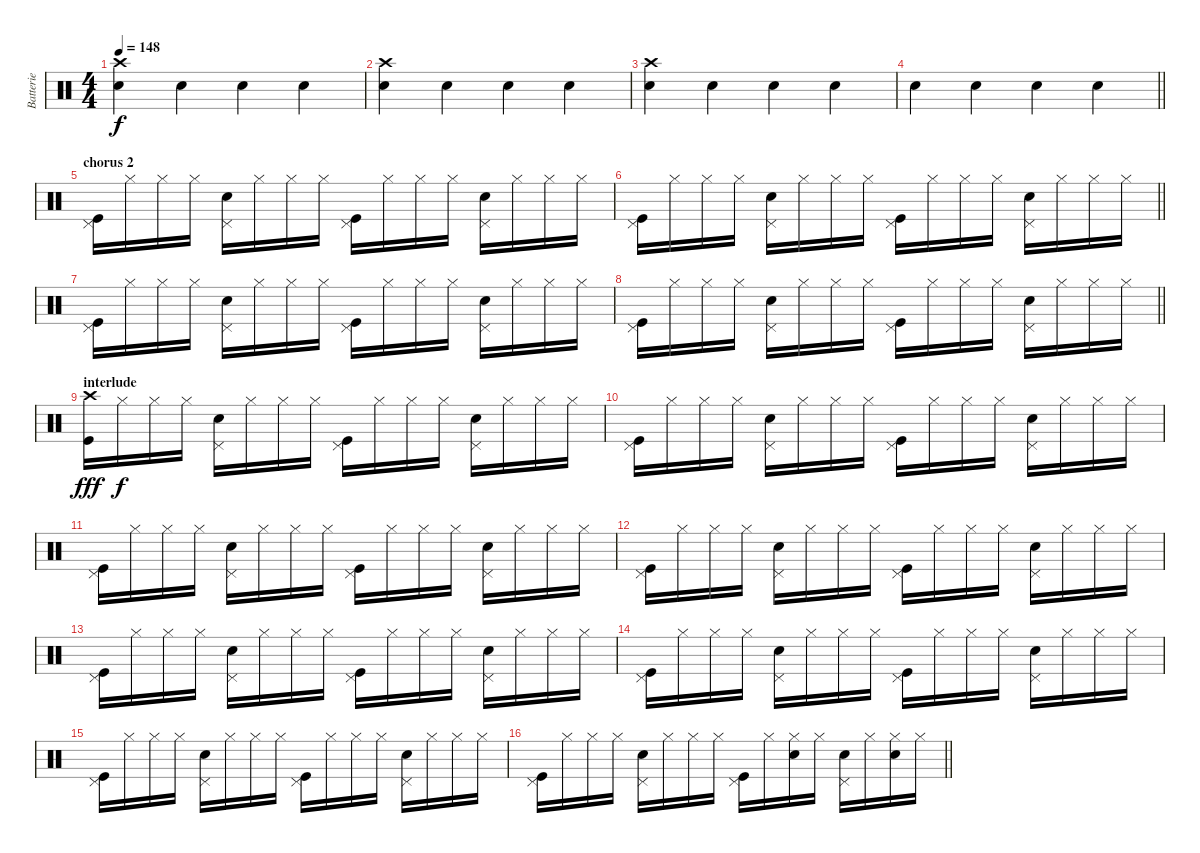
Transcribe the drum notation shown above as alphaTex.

\track ("Batterie" "Batterie") {instrument percussion}
\staff {score}
\articulation defaults
\ts (4 4)
\tempo 148
\clef neutral
\ks c
("Crash high (hit)" "Electric Snare (hit)").4{dy f} "Electric Snare (hit)".4 "Electric Snare (hit)".4 "Electric Snare (hit)".4 |
("Crash high (hit)" "Electric Snare (hit)").4 "Electric Snare (hit)".4 "Electric Snare (hit)".4 "Electric Snare (hit)".4 |
("Crash high (hit)" "Electric Snare (hit)").4 "Electric Snare (hit)".4 "Electric Snare (hit)".4 "Electric Snare (hit)".4 |
\barLineRight lightlight "Electric Snare (hit)".4 "Electric Snare (hit)".4 "Electric Snare (hit)".4 "Electric Snare (hit)".4
|
\section ("" "chorus 2")
("Pedal Hi-Hat (hit)" "Kick (hit)").16 "Hi-Hat (closed)".16 "Hi-Hat (closed)".16 "Hi-Hat (closed)".16 ("Pedal Hi-Hat (hit)" "Electric Snare (hit)").16 "Hi-Hat (closed)".16 "Hi-Hat (closed)".16 "Hi-Hat (closed)".16 ("Pedal Hi-Hat (hit)" "Kick (hit)").16 "Hi-Hat (closed)".16 "Hi-Hat (closed)".16 "Hi-Hat (closed)".16 ("Pedal Hi-Hat (hit)" "Electric Snare (hit)").16 "Hi-Hat (closed)".16 "Hi-Hat (closed)".16 "Hi-Hat (closed)".16 |
\barLineRight lightlight
("Pedal Hi-Hat (hit)" "Kick (hit)").16 "Hi-Hat (closed)".16 "Hi-Hat (closed)".16 "Hi-Hat (closed)".16 ("Pedal Hi-Hat (hit)" "Electric Snare (hit)").16 "Hi-Hat (closed)".16 "Hi-Hat (closed)".16 "Hi-Hat (closed)".16 ("Pedal Hi-Hat (hit)" "Kick (hit)").16 "Hi-Hat (closed)".16 "Hi-Hat (closed)".16 "Hi-Hat (closed)".16 ("Pedal Hi-Hat (hit)" "Electric Snare (hit)").16 "Hi-Hat (closed)".16 "Hi-Hat (closed)".16 "Hi-Hat (closed)".16 |
("Pedal Hi-Hat (hit)" "Kick (hit)").16 "Hi-Hat (closed)".16 "Hi-Hat (closed)".16 "Hi-Hat (closed)".16 ("Pedal Hi-Hat (hit)" "Electric Snare (hit)").16 "Hi-Hat (closed)".16 "Hi-Hat (closed)".16 "Hi-Hat (closed)".16 ("Pedal Hi-Hat (hit)" "Kick (hit)").16 "Hi-Hat (closed)".16 "Hi-Hat (closed)".16 "Hi-Hat (closed)".16 ("Pedal Hi-Hat (hit)" "Electric Snare (hit)").16 "Hi-Hat (closed)".16 "Hi-Hat (closed)".16 "Hi-Hat (closed)".16 |
\barLineRight lightlight
("Pedal Hi-Hat (hit)" "Kick (hit)").16 "Hi-Hat (closed)".16 "Hi-Hat (closed)".16 "Hi-Hat (closed)".16 ("Pedal Hi-Hat (hit)" "Electric Snare (hit)").16 "Hi-Hat (closed)".16 "Hi-Hat (closed)".16 "Hi-Hat (closed)".16 ("Pedal Hi-Hat (hit)" "Kick (hit)").16 "Hi-Hat (closed)".16 "Hi-Hat (closed)".16 "Hi-Hat (closed)".16 ("Pedal Hi-Hat (hit)" "Electric Snare (hit)").16 "Hi-Hat (closed)".16 "Hi-Hat (closed)".16 "Hi-Hat (closed)".16 |
\section ("" "interlude")
("Crash high (hit)" "Kick (hit)").16{dy fff} "Hi-Hat (closed)".16{dy f} "Hi-Hat (closed)".16 "Hi-Hat (closed)".16 ("Pedal Hi-Hat (hit)" "Electric Snare (hit)").16 "Hi-Hat (closed)".16 "Hi-Hat (closed)".16 "Hi-Hat (closed)".16 ("Pedal Hi-Hat (hit)" "Kick (hit)").16 "Hi-Hat (closed)".16 "Hi-Hat (closed)".16 "Hi-Hat (closed)".16 ("Pedal Hi-Hat (hit)" "Electric Snare (hit)").16 "Hi-Hat (closed)".16 "Hi-Hat (closed)".16 "Hi-Hat (closed)".16 |
("Pedal Hi-Hat (hit)" "Kick (hit)").16 "Hi-Hat (closed)".16 "Hi-Hat (closed)".16 "Hi-Hat (closed)".16 ("Pedal Hi-Hat (hit)" "Electric Snare (hit)").16 "Hi-Hat (closed)".16 "Hi-Hat (closed)".16 "Hi-Hat (closed)".16 ("Pedal Hi-Hat (hit)" "Kick (hit)").16 "Hi-Hat (closed)".16 "Hi-Hat (closed)".16 "Hi-Hat (closed)".16 ("Pedal Hi-Hat (hit)" "Electric Snare (hit)").16 "Hi-Hat (closed)".16 "Hi-Hat (closed)".16 "Hi-Hat (closed)".16 |
("Pedal Hi-Hat (hit)" "Kick (hit)").16 "Hi-Hat (closed)".16 "Hi-Hat (closed)".16 "Hi-Hat (closed)".16 ("Pedal Hi-Hat (hit)" "Electric Snare (hit)").16 "Hi-Hat (closed)".16 "Hi-Hat (closed)".16 "Hi-Hat (closed)".16 ("Pedal Hi-Hat (hit)" "Kick (hit)").16 "Hi-Hat (closed)".16 "Hi-Hat (closed)".16 "Hi-Hat (closed)".16 ("Pedal Hi-Hat (hit)" "Electric Snare (hit)").16 "Hi-Hat (closed)".16 "Hi-Hat (closed)".16 "Hi-Hat (closed)".16 |
("Pedal Hi-Hat (hit)" "Kick (hit)").16 "Hi-Hat (closed)".16 "Hi-Hat (closed)".16 "Hi-Hat (closed)".16 ("Pedal Hi-Hat (hit)" "Electric Snare (hit)").16 "Hi-Hat (closed)".16 "Hi-Hat (closed)".16 "Hi-Hat (closed)".16 ("Pedal Hi-Hat (hit)" "Kick (hit)").16 "Hi-Hat (closed)".16 "Hi-Hat (closed)".16 "Hi-Hat (closed)".16 ("Pedal Hi-Hat (hit)" "Electric Snare (hit)").16 "Hi-Hat (closed)".16 "Hi-Hat (closed)".16 "Hi-Hat (closed)".16 |
("Pedal Hi-Hat (hit)" "Kick (hit)").16 "Hi-Hat (closed)".16 "Hi-Hat (closed)".16 "Hi-Hat (closed)".16 ("Pedal Hi-Hat (hit)" "Electric Snare (hit)").16 "Hi-Hat (closed)".16 "Hi-Hat (closed)".16 "Hi-Hat (closed)".16 ("Pedal Hi-Hat (hit)" "Kick (hit)").16 "Hi-Hat (closed)".16 "Hi-Hat (closed)".16 "Hi-Hat (closed)".16 ("Pedal Hi-Hat (hit)" "Electric Snare (hit)").16 "Hi-Hat (closed)".16 "Hi-Hat (closed)".16 "Hi-Hat (closed)".16 |
("Pedal Hi-Hat (hit)" "Kick (hit)").16 "Hi-Hat (closed)".16 "Hi-Hat (closed)".16 "Hi-Hat (closed)".16 ("Pedal Hi-Hat (hit)" "Electric Snare (hit)").16 "Hi-Hat (closed)".16 "Hi-Hat (closed)".16 "Hi-Hat (closed)".16 ("Pedal Hi-Hat (hit)" "Kick (hit)").16 "Hi-Hat (closed)".16 "Hi-Hat (closed)".16 "Hi-Hat (closed)".16 ("Pedal Hi-Hat (hit)" "Electric Snare (hit)").16 "Hi-Hat (closed)".16 "Hi-Hat (closed)".16 "Hi-Hat (closed)".16 |
("Pedal Hi-Hat (hit)" "Kick (hit)").16 "Hi-Hat (closed)".16 "Hi-Hat (closed)".16 "Hi-Hat (closed)".16 ("Pedal Hi-Hat (hit)" "Electric Snare (hit)").16 "Hi-Hat (closed)".16 "Hi-Hat (closed)".16 "Hi-Hat (closed)".16 ("Pedal Hi-Hat (hit)" "Kick (hit)").16 "Hi-Hat (closed)".16 "Hi-Hat (closed)".16 "Hi-Hat (closed)".16 ("Pedal Hi-Hat (hit)" "Electric Snare (hit)").16 "Hi-Hat (closed)".16 "Hi-Hat (closed)".16 "Hi-Hat (closed)".16 |
\barLineRight lightlight
("Pedal Hi-Hat (hit)" "Kick (hit)").16 "Hi-Hat (closed)".16 "Hi-Hat (closed)".16 "Hi-Hat (closed)".16 ("Pedal Hi-Hat (hit)" "Electric Snare (hit)").16 "Hi-Hat (closed)".16 "Hi-Hat (closed)".16 "Hi-Hat (closed)".16 ("Pedal Hi-Hat (hit)" "Kick (hit)").16 "Hi-Hat (closed)".16 ("Hi-Hat (closed)" "Electric Snare (hit)").16 "Hi-Hat (closed)".16 ("Pedal Hi-Hat (hit)" "Electric Snare (hit)").16 "Hi-Hat (closed)".16 ("Hi-Hat (closed)" "Electric Snare (hit)").16 "Hi-Hat (closed)".16
